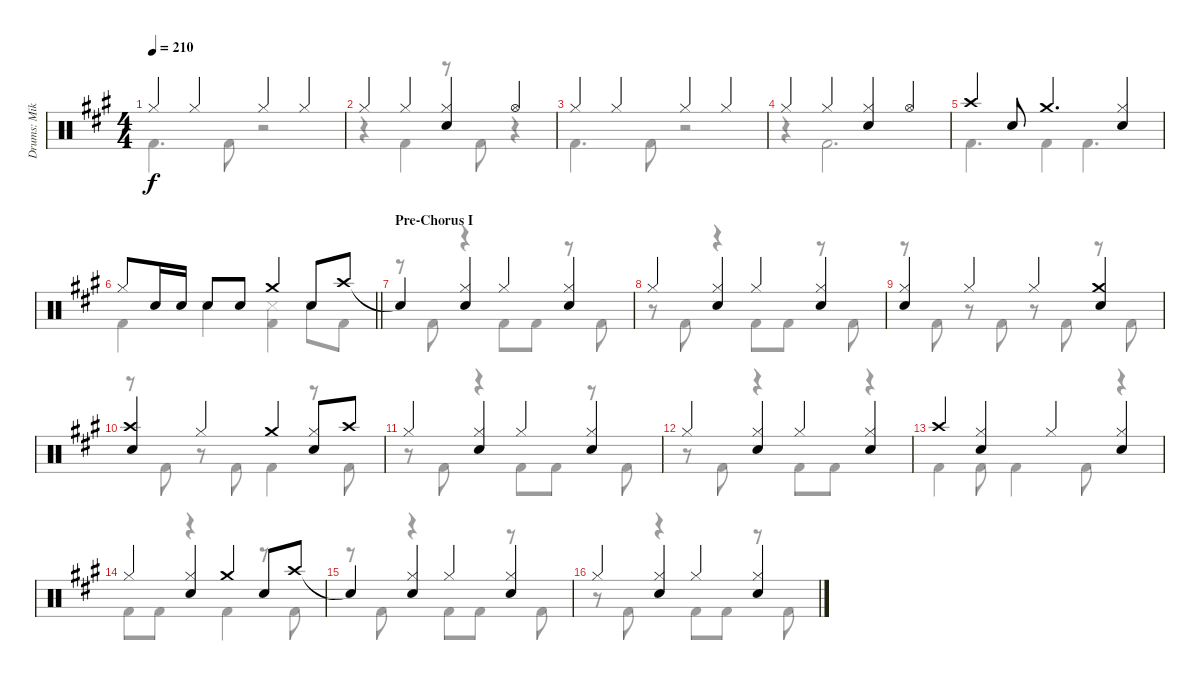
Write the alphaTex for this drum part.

\track ("Drums: Mikkey" "Drums: Mik") {instrument percussion}
\staff {score}
\articulation defaults
\voice
\ts (4 4)
\tempo 210
\clef neutral
\ks a "Hi-Hat (closed)".4{dy f} "Hi-Hat (closed)".4 "Hi-Hat (closed)".4 "Hi-Hat (closed)".4
|
"Hi-Hat (closed)".4 "Hi-Hat (closed)".4 ("Hi-Hat (closed)" "Snare (hit) 2").4 "Hi-Hat (open)".4 |
"Hi-Hat (closed)".4 "Hi-Hat (closed)".4 "Hi-Hat (closed)".4 "Hi-Hat (closed)".4 |
"Hi-Hat (closed)".4 "Hi-Hat (closed)".4 ("Hi-Hat (closed)" "Snare (hit) 2").4 "Hi-Hat (open)".4 |
"Crash high (hit)".4 "Snare (hit) 2".8 "Crash medium (hit)".4{d} ("Hi-Hat (closed)" "Snare (hit) 2").4 |
\barLineRight lightlight "Hi-Hat (closed)".8 "Snare (hit) 2".16 "Snare (hit) 2".16 "Snare (hit) 2".8 "Snare (hit) 2".8 "Crash medium (hit)".4 "Snare (hit) 2".8 "Crash high (hit)".8
|
\section ("" "Pre-Chorus I")
"Snare (hit)"{t}.4 ("Hi-Hat (closed)" "Snare (hit) 2").4 "Hi-Hat (closed)".4 ("Hi-Hat (closed)" "Snare (hit) 2").4 |
"Hi-Hat (closed)".4 ("Hi-Hat (closed)" "Snare (hit) 2").4 "Hi-Hat (closed)".4 ("Hi-Hat (closed)" "Snare (hit) 2").4 |
("Hi-Hat (closed)" "Snare (hit) 2").4 "Hi-Hat (closed)".4 "Hi-Hat (closed)".4 ("Crash medium (hit)" "Snare (hit) 2").4 |
("Crash high (hit)" "Snare (hit) 2").4 "Hi-Hat (closed)".4 "Crash medium (hit)".4 ("Hi-Hat (closed)" "Snare (hit) 2").8 "Crash high (hit)".8 |
"Hi-Hat (closed)".4 ("Hi-Hat (closed)" "Snare (hit) 2").4 "Hi-Hat (closed)".4 ("Hi-Hat (closed)" "Snare (hit) 2").4 |
"Hi-Hat (closed)".4 ("Hi-Hat (closed)" "Snare (hit) 2").4 "Hi-Hat (closed)".4 ("Hi-Hat (closed)" "Snare (hit) 2").4 |
"Crash high (hit)".4 ("Hi-Hat (closed)" "Snare (hit) 2").4 "Hi-Hat (closed)".4 ("Hi-Hat (closed)" "Snare (hit) 2").4 |
"Hi-Hat (closed)".4 ("Hi-Hat (closed)" "Snare (hit) 2").4 "Crash medium (hit)".4 "Snare (hit) 2".8 "Crash high (hit)".8 |
"Snare (hit)"{t}.4 ("Hi-Hat (closed)" "Snare (hit) 2").4 "Hi-Hat (closed)".4 ("Hi-Hat (closed)" "Snare (hit) 2").4 |
"Hi-Hat (closed)".4 ("Hi-Hat (closed)" "Snare (hit) 2").4 "Hi-Hat (closed)".4 ("Hi-Hat (closed)" "Snare (hit) 2").4
\voice
\clef neutral
\ottava regular
\simile none
\ks a "Kick (hit) 2".4{d dy f} "Kick (hit) 2".8
r.2 |
r.4 "Kick (hit) 2".4 r.8 "Kick (hit) 2".8 r.4 |
"Kick (hit) 2".4{d} "Kick (hit) 2".8 r.2 |
r.4 "Kick (hit) 2".2{d} |
"Kick (hit) 2".4{d} "Kick (hit) 2".4 "Kick (hit) 2".4{d} |
\barLineRight lightlight "Kick (hit) 2".4 "Snare (side stick) 3".4
("Kick (hit) 2" "Snare (side stick) 3").4 "Snare (side stick) 3".8 "Kick (hit) 2".8 |
r.8 "Kick (hit) 2".8 r.4 "Kick (hit) 2".8 "Kick (hit) 2".8 r.8 "Kick (hit) 2".8 |
r.8 "Kick (hit) 2".8 r.4 "Kick (hit) 2".8 "Kick (hit) 2".8 r.8 "Kick (hit) 2".8 |
r.8 "Kick (hit) 2".8 r.8 "Kick (hit) 2".8 r.8 "Kick (hit) 2".8 r.8 "Kick (hit) 2".8 |
r.8 "Kick (hit) 2".8 r.8 "Kick (hit) 2".8 "Kick (hit) 2".4 r.8 "Kick (hit) 2".8 |
r.8 "Kick (hit) 2".8 r.4 "Kick (hit) 2".8 "Kick (hit) 2".8 r.8 "Kick (hit) 2".8 |
r.8 "Kick (hit) 2".8 r.4 "Kick (hit) 2".8 "Kick (hit) 2".8 r.4 |
"Kick (hit) 2".4 "Kick (hit) 2".8 "Kick (hit) 2".4 "Kick (hit) 2".8 r.4 |
"Kick (hit) 2".8 "Kick (hit) 2".8 r.4 "Kick (hit) 2".4 r.8 "Kick (hit) 2".8 |
r.8 "Kick (hit) 2".8 r.4 "Kick (hit) 2".8 "Kick (hit) 2".8 r.8 "Kick (hit) 2".8 |
r.8 "Kick (hit) 2".8 r.4 "Kick (hit) 2".8 "Kick (hit) 2".8 r.8 "Kick (hit) 2".8
